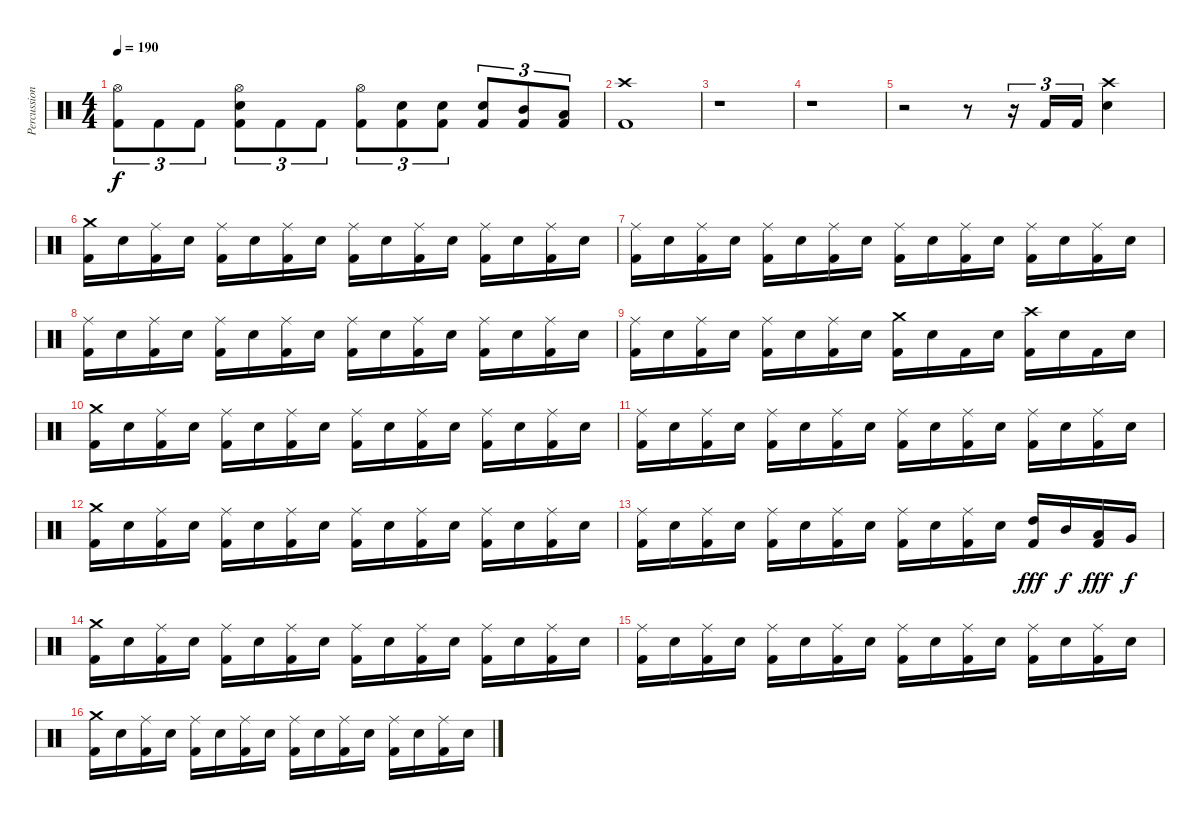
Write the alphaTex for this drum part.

\track ("Percussion" "Percussion") {instrument percussion}
\staff {score}
\articulation defaults
\ts (4 4)
\tempo 190
\clef neutral
\ks c
("Hi-Hat (open)" "Kick (hit) 2").8{tu (3 2) dy f} "Kick (hit) 2".8{tu (3 2)} "Kick (hit) 2".8{tu (3 2)} ("Hi-Hat (open)" "Electric Snare (hit)" "Kick (hit) 2").8{tu (3 2)} "Kick (hit) 2".8{tu (3 2)} "Kick (hit) 2".8{tu (3 2)} ("Hi-Hat (open)" "Kick (hit) 2").8{tu (3 2)} ("Electric Snare (hit)" "Kick (hit) 2").8{tu (3 2)} ("Electric Snare (hit)" "Kick (hit) 2").8{tu (3 2)} ("Electric Snare (hit)" "Kick (hit) 2").8{tu (3 2)} ("Mid Tom (hit)" "Kick (hit) 2").8{tu (3 2)} ("Low Tom (hit)" "Kick (hit) 2").8{tu (3 2)} |
("Crash high (hit)" "Kick (hit) 2").1 |
r.1 |
r.1 |
r.2 r.8 r.16{tu (3 2)} "Kick (hit) 2".16{tu (3 2)} "Kick (hit) 2".16{tu (3 2)} ("Crash high (hit)" "Electric Snare (hit)").4 |
("Crash medium (hit)" "Kick (hit) 2").16 "Electric Snare (hit)".16 ("Ride (middle)" "Kick (hit) 2").16 "Electric Snare (hit)".16 ("Ride (middle)" "Kick (hit) 2").16 "Electric Snare (hit)".16 ("Ride (middle)" "Kick (hit) 2").16 "Electric Snare (hit)".16 ("Ride (middle)" "Kick (hit) 2").16 "Electric Snare (hit)".16 ("Ride (middle)" "Kick (hit) 2").16 "Electric Snare (hit)".16 ("Ride (middle)" "Kick (hit) 2").16 "Electric Snare (hit)".16 ("Ride (middle)" "Kick (hit) 2").16 "Electric Snare (hit)".16 |
("Ride (middle)" "Kick (hit) 2").16 "Electric Snare (hit)".16 ("Ride (middle)" "Kick (hit) 2").16 "Electric Snare (hit)".16 ("Ride (middle)" "Kick (hit) 2").16 "Electric Snare (hit)".16 ("Ride (middle)" "Kick (hit) 2").16 "Electric Snare (hit)".16 ("Ride (middle)" "Kick (hit) 2").16 "Electric Snare (hit)".16 ("Ride (middle)" "Kick (hit) 2").16 "Electric Snare (hit)".16 ("Ride (middle)" "Kick (hit) 2").16 "Electric Snare (hit)".16 ("Ride (middle)" "Kick (hit) 2").16 "Electric Snare (hit)".16 |
("Ride (middle)" "Kick (hit) 2").16 "Electric Snare (hit)".16 ("Ride (middle)" "Kick (hit) 2").16 "Electric Snare (hit)".16 ("Ride (middle)" "Kick (hit) 2").16 "Electric Snare (hit)".16 ("Ride (middle)" "Kick (hit) 2").16 "Electric Snare (hit)".16 ("Ride (middle)" "Kick (hit) 2").16 "Electric Snare (hit)".16 ("Ride (middle)" "Kick (hit) 2").16 "Electric Snare (hit)".16 ("Ride (middle)" "Kick (hit) 2").16 "Electric Snare (hit)".16 ("Ride (middle)" "Kick (hit) 2").16 "Electric Snare (hit)".16 |
("Ride (middle)" "Kick (hit) 2").16 "Electric Snare (hit)".16 ("Ride (middle)" "Kick (hit) 2").16 "Electric Snare (hit)".16 ("Ride (middle)" "Kick (hit) 2").16 "Electric Snare (hit)".16 ("Ride (middle)" "Kick (hit) 2").16 "Electric Snare (hit)".16 ("Crash medium (hit)" "Kick (hit) 2").16 "Electric Snare (hit)".16 "Kick (hit) 2".16 "Electric Snare (hit)".16 ("Crash high (hit)" "Kick (hit) 2").16 "Electric Snare (hit)".16 "Kick (hit) 2".16 "Electric Snare (hit)".16 |
("Crash medium (hit)" "Kick (hit) 2").16 "Electric Snare (hit)".16 ("Ride (middle)" "Kick (hit) 2").16 "Electric Snare (hit)".16 ("Ride (middle)" "Kick (hit) 2").16 "Electric Snare (hit)".16 ("Ride (middle)" "Kick (hit) 2").16 "Electric Snare (hit)".16 ("Ride (middle)" "Kick (hit) 2").16 "Electric Snare (hit)".16 ("Ride (middle)" "Kick (hit) 2").16 "Electric Snare (hit)".16 ("Ride (middle)" "Kick (hit) 2").16 "Electric Snare (hit)".16 ("Ride (middle)" "Kick (hit) 2").16 "Electric Snare (hit)".16 |
("Ride (middle)" "Kick (hit) 2").16 "Electric Snare (hit)".16 ("Ride (middle)" "Kick (hit) 2").16 "Electric Snare (hit)".16 ("Ride (middle)" "Kick (hit) 2").16 "Electric Snare (hit)".16 ("Ride (middle)" "Kick (hit) 2").16 "Electric Snare (hit)".16 ("Ride (middle)" "Kick (hit) 2").16 "Electric Snare (hit)".16 ("Ride (middle)" "Kick (hit) 2").16 "Electric Snare (hit)".16 ("Ride (middle)" "Kick (hit) 2").16 "Electric Snare (hit)".16 ("Ride (middle)" "Kick (hit) 2").16 "Electric Snare (hit)".16 |
("Crash medium (hit)" "Kick (hit) 2").16 "Electric Snare (hit)".16 ("Ride (middle)" "Kick (hit) 2").16 "Electric Snare (hit)".16 ("Ride (middle)" "Kick (hit) 2").16 "Electric Snare (hit)".16 ("Ride (middle)" "Kick (hit) 2").16 "Electric Snare (hit)".16 ("Ride (middle)" "Kick (hit) 2").16 "Electric Snare (hit)".16 ("Ride (middle)" "Kick (hit) 2").16 "Electric Snare (hit)".16 ("Ride (middle)" "Kick (hit) 2").16 "Electric Snare (hit)".16 ("Ride (middle)" "Kick (hit) 2").16 "Electric Snare (hit)".16 |
("Ride (middle)" "Kick (hit) 2").16 "Electric Snare (hit)".16 ("Ride (middle)" "Kick (hit) 2").16 "Electric Snare (hit)".16 ("Ride (middle)" "Kick (hit) 2").16 "Electric Snare (hit)".16 ("Ride (middle)" "Kick (hit) 2").16 "Electric Snare (hit)".16 ("Ride (middle)" "Kick (hit) 2").16 "Electric Snare (hit)".16 ("Ride (middle)" "Kick (hit) 2").16 "Electric Snare (hit)".16 ("High Tom (hit)" "Kick (hit) 2").16{dy fff} "Mid Tom (hit)".16{dy f} ("Low Tom (hit)" "Kick (hit) 2").16{dy fff} "Very Low Tom (hit)".16{dy f} |
("Crash medium (hit)" "Kick (hit) 2").16 "Electric Snare (hit)".16 ("Ride (middle)" "Kick (hit) 2").16 "Electric Snare (hit)".16 ("Ride (middle)" "Kick (hit) 2").16 "Electric Snare (hit)".16 ("Ride (middle)" "Kick (hit) 2").16 "Electric Snare (hit)".16 ("Ride (middle)" "Kick (hit) 2").16 "Electric Snare (hit)".16 ("Ride (middle)" "Kick (hit) 2").16 "Electric Snare (hit)".16 ("Ride (middle)" "Kick (hit) 2").16 "Electric Snare (hit)".16 ("Ride (middle)" "Kick (hit) 2").16 "Electric Snare (hit)".16 |
("Ride (middle)" "Kick (hit) 2").16 "Electric Snare (hit)".16 ("Ride (middle)" "Kick (hit) 2").16 "Electric Snare (hit)".16 ("Ride (middle)" "Kick (hit) 2").16 "Electric Snare (hit)".16 ("Ride (middle)" "Kick (hit) 2").16 "Electric Snare (hit)".16 ("Ride (middle)" "Kick (hit) 2").16 "Electric Snare (hit)".16 ("Ride (middle)" "Kick (hit) 2").16 "Electric Snare (hit)".16 ("Ride (middle)" "Kick (hit) 2").16 "Electric Snare (hit)".16 ("Ride (middle)" "Kick (hit) 2").16 "Electric Snare (hit)".16 |
("Crash medium (hit)" "Kick (hit) 2").16 "Electric Snare (hit)".16 ("Ride (middle)" "Kick (hit) 2").16 "Electric Snare (hit)".16 ("Ride (middle)" "Kick (hit) 2").16 "Electric Snare (hit)".16 ("Ride (middle)" "Kick (hit) 2").16 "Electric Snare (hit)".16 ("Ride (middle)" "Kick (hit) 2").16 "Electric Snare (hit)".16 ("Ride (middle)" "Kick (hit) 2").16 "Electric Snare (hit)".16 ("Ride (middle)" "Kick (hit) 2").16 "Electric Snare (hit)".16 ("Ride (middle)" "Kick (hit) 2").16 "Electric Snare (hit)".16
